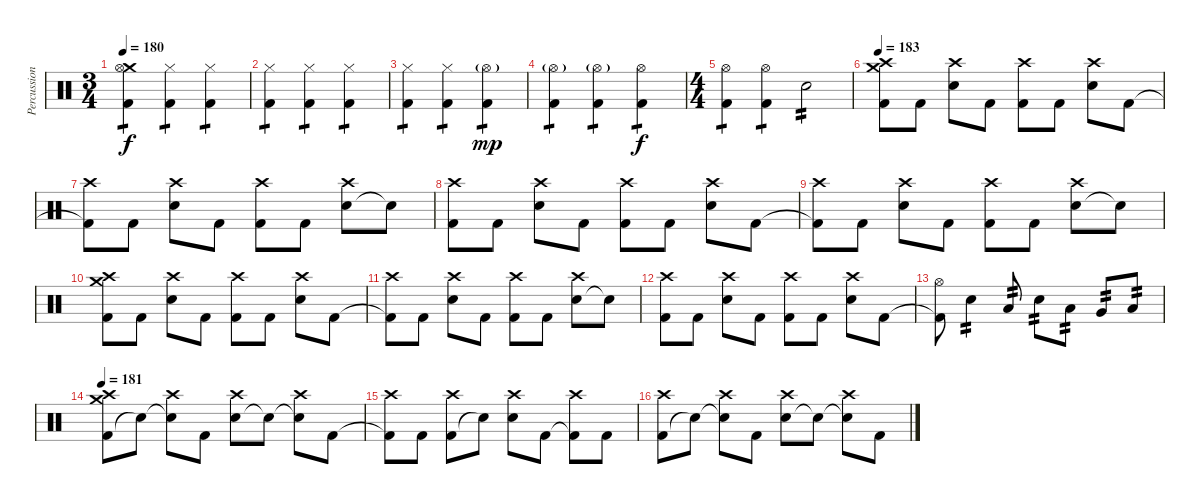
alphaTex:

\track ("Percussion" "Percussion") {instrument percussion}
\staff {score}
\articulation defaults
\ts (3 4)
\tempo 180
\clef neutral
\ks c
("Kick (hit) 2" "Crash medium (hit)" "Hi-Hat (open)").4{tp 1 dy f} ("Kick (hit) 2" "Hi-Hat (closed)").4{tp 1} ("Kick (hit) 2" "Hi-Hat (closed)").4{tp 1} |
("Kick (hit) 2" "Hi-Hat (closed)").4{tp 1} ("Kick (hit) 2" "Hi-Hat (closed)").4{tp 1} ("Kick (hit) 2" "Hi-Hat (closed)").4{tp 1} |
("Kick (hit) 2" "Hi-Hat (closed)").4{tp 1} ("Kick (hit) 2" "Hi-Hat (closed)").4{tp 1} ("Kick (hit) 2" "Hi-Hat (open)"{g}).4{tp 1 dy mp} |
("Kick (hit) 2" "Hi-Hat (open)"{g}).4{tp 1} ("Kick (hit) 2" "Hi-Hat (open)"{g}).4{tp 1} ("Kick (hit) 2" "Hi-Hat (open)").4{tp 1 dy f} |
\ts (4 4)
("Hi-Hat (open)" "Kick (hit) 2").4{tp 1} ("Kick (hit) 2" "Hi-Hat (open)").4{tp 1} "Snare (hit) 2".2{tp 2} |
\tempo 183
("Kick (hit) 2" "Crash high (hit)" "Crash medium (hit)").8 "Kick (hit) 2".8 ("Snare (hit) 2" "Crash high (hit)").8 "Kick (hit) 2".8 ("Kick (hit) 2" "Crash high (hit)").8 "Kick (hit) 2".8 ("Snare (hit) 2" "Crash high (hit)").8 "Kick (hit) 2".8 |
("Kick (hit) 2"{t} "Crash high (hit)").8 "Kick (hit) 2".8 ("Snare (hit) 2" "Crash high (hit)").8 "Kick (hit) 2".8 ("Kick (hit) 2" "Crash high (hit)").8 "Kick (hit) 2".8 ("Snare (hit) 2" "Crash high (hit)").8 "Snare (hit)"{t}.8 |
("Kick (hit) 2" "Crash high (hit)").8 "Kick (hit) 2".8 ("Snare (hit) 2" "Crash high (hit)").8 "Kick (hit) 2".8 ("Kick (hit) 2" "Crash high (hit)").8 "Kick (hit) 2".8 ("Snare (hit) 2" "Crash high (hit)").8 "Kick (hit) 2".8 |
("Kick (hit) 2"{t} "Crash high (hit)").8 "Kick (hit) 2".8 ("Snare (hit) 2" "Crash high (hit)").8 "Kick (hit) 2".8 ("Kick (hit) 2" "Crash high (hit)").8 "Kick (hit) 2".8 ("Snare (hit) 2" "Crash high (hit)").8 "Snare (hit)"{t}.8 |
("Kick (hit) 2" "Crash high (hit)" "Crash medium (hit)").8 "Kick (hit) 2".8 ("Snare (hit) 2" "Crash high (hit)").8 "Kick (hit) 2".8 ("Kick (hit) 2" "Crash high (hit)").8 "Kick (hit) 2".8 ("Snare (hit) 2" "Crash high (hit)").8 "Kick (hit) 2".8 |
("Kick (hit) 2"{t} "Crash high (hit)").8 "Kick (hit) 2".8 ("Snare (hit) 2" "Crash high (hit)").8 "Kick (hit) 2".8 ("Kick (hit) 2" "Crash high (hit)").8 "Kick (hit) 2".8 ("Snare (hit) 2" "Crash high (hit)").8 "Snare (hit)"{t}.8 |
("Kick (hit) 2" "Crash high (hit)").8 "Kick (hit) 2".8 ("Snare (hit) 2" "Crash high (hit)").8 "Kick (hit) 2".8 ("Kick (hit) 2" "Crash high (hit)").8 "Kick (hit) 2".8 ("Snare (hit) 2" "Crash high (hit)").8 "Kick (hit) 2".8 |
("Kick (hit) 2"{t} "Hi-Hat (open)").8 "Snare (hit) 2".4{tp 2} "Low Tom (hit)".8{tp 2} "Snare (hit) 2".8{tp 2} "Low Tom (hit)".8{tp 2} "Very Low Tom (hit)".8{tp 2} "Low Floor Tom (hit)".8{tp 2} |
\tempo 181
("Kick (hit) 2" "Crash medium (hit)" "Crash high (hit)").8 "Snare (hit)"{t}.8 ("Snare (hit)"{t} "Crash high (hit)").8 "Kick (hit) 2".8 ("Snare (hit) 2" "Crash high (hit)").8 "Snare (hit)"{t}.8 ("Snare (hit)"{t} "Crash high (hit)").8 "Kick (hit) 2".8 |
("Kick (hit) 2"{t} "Crash high (hit)").8 "Kick (hit) 2".8 ("Kick (hit) 2" "Crash high (hit)").8 "Snare (hit)"{t}.8 ("Snare (hit) 2" "Crash high (hit)").8 "Kick (hit) 2".8 ("Kick (hit) 2"{t} "Crash high (hit)").8 "Kick (hit) 2".8 |
("Kick (hit) 2" "Crash high (hit)").8 "Snare (hit)"{t}.8 ("Snare (hit)"{t} "Crash high (hit)").8 "Kick (hit) 2".8 ("Snare (hit) 2" "Crash high (hit)").8 "Snare (hit)"{t}.8 ("Snare (hit)"{t} "Crash high (hit)").8 "Kick (hit) 2".8
